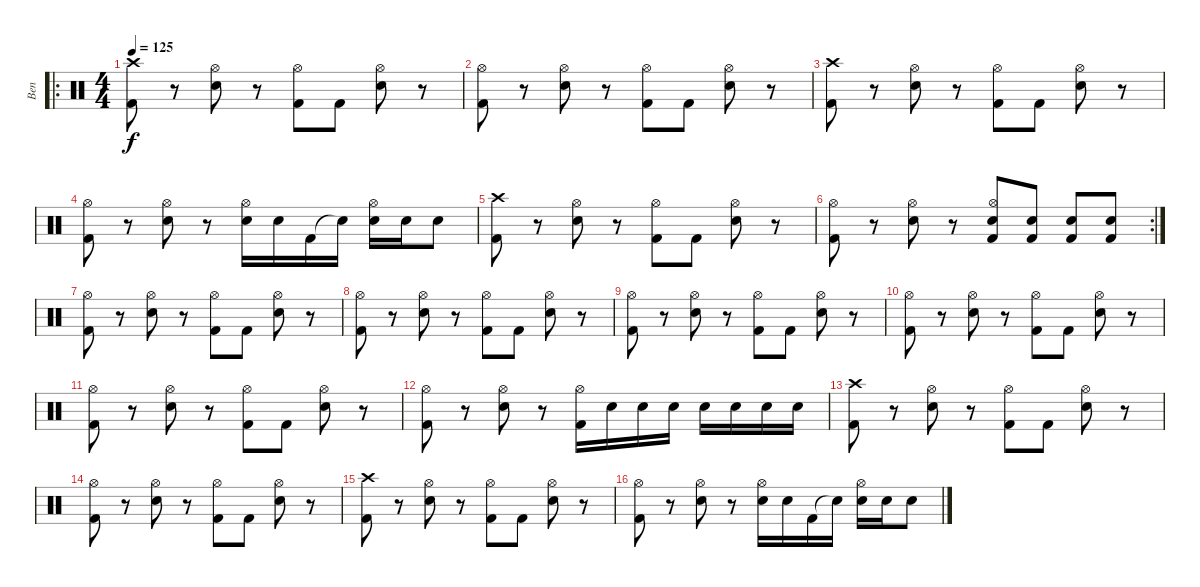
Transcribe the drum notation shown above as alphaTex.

\track ("Ben" "Ben") {instrument percussion}
\staff {score}
\articulation defaults
\ro
\ts (4 4)
\tempo 125
\clef neutral
\ks c
("Crash high (hit)" "Kick (hit) 2").8{dy f} r.8 ("Hi-Hat (open)" "Snare (hit) 2").8 r.8 ("Hi-Hat (open)" "Kick (hit) 2").8 "Kick (hit) 2".8 ("Hi-Hat (open)" "Snare (hit) 2").8 r.8 |
("Hi-Hat (open)" "Kick (hit) 2").8 r.8 ("Hi-Hat (open)" "Snare (hit) 2").8 r.8 ("Hi-Hat (open)" "Kick (hit) 2").8 "Kick (hit) 2".8 ("Hi-Hat (open)" "Snare (hit) 2").8 r.8 |
("Crash high (hit)" "Kick (hit) 2").8 r.8 ("Hi-Hat (open)" "Snare (hit) 2").8 r.8 ("Hi-Hat (open)" "Kick (hit) 2").8 "Kick (hit) 2".8 ("Hi-Hat (open)" "Snare (hit) 2").8 r.8 |
("Hi-Hat (open)" "Kick (hit) 2").8 r.8 ("Hi-Hat (open)" "Snare (hit) 2").8 r.8 ("Hi-Hat (open)" "Snare (hit) 2").16 "Snare (hit) 2".16 "Kick (hit) 2".16 "Snare (hit)"{t}.16 ("Hi-Hat (open)" "Snare (hit) 2").16 "Snare (hit) 2".16 "Snare (hit) 2".8 |
("Crash high (hit)" "Kick (hit) 2").8 r.8 ("Hi-Hat (open)" "Snare (hit) 2").8 r.8 ("Hi-Hat (open)" "Kick (hit) 2").8 "Kick (hit) 2".8 ("Hi-Hat (open)" "Snare (hit) 2").8 r.8 |
\rc 2
("Hi-Hat (open)" "Kick (hit) 2").8 r.8 ("Hi-Hat (open)" "Snare (hit) 2").8 r.8 ("Hi-Hat (open)" "Snare (hit) 2" "Kick (hit) 2").8 ("Snare (hit) 2" "Kick (hit) 2").8 ("Snare (hit) 2" "Kick (hit) 2").8 ("Snare (hit) 2" "Kick (hit) 2").8 |
("Hi-Hat (open)" "Kick (hit) 2").8 r.8 ("Hi-Hat (open)" "Snare (hit) 2").8 r.8 ("Hi-Hat (open)" "Kick (hit) 2").8 "Kick (hit) 2".8 ("Hi-Hat (open)" "Snare (hit) 2").8 r.8 |
("Hi-Hat (open)" "Kick (hit) 2").8 r.8 ("Hi-Hat (open)" "Snare (hit) 2").8 r.8 ("Hi-Hat (open)" "Kick (hit) 2").8 "Kick (hit) 2".8 ("Hi-Hat (open)" "Snare (hit) 2").8 r.8 |
("Hi-Hat (open)" "Kick (hit) 2").8 r.8 ("Hi-Hat (open)" "Snare (hit) 2").8 r.8 ("Hi-Hat (open)" "Kick (hit) 2").8 "Kick (hit) 2".8 ("Hi-Hat (open)" "Snare (hit) 2").8 r.8 |
("Hi-Hat (open)" "Kick (hit) 2").8 r.8 ("Hi-Hat (open)" "Snare (hit) 2").8 r.8 ("Hi-Hat (open)" "Kick (hit) 2").8 "Kick (hit) 2".8 ("Hi-Hat (open)" "Snare (hit) 2").8 r.8 |
("Hi-Hat (open)" "Kick (hit) 2").8 r.8 ("Hi-Hat (open)" "Snare (hit) 2").8 r.8 ("Hi-Hat (open)" "Kick (hit) 2").8 "Kick (hit) 2".8 ("Hi-Hat (open)" "Snare (hit) 2").8 r.8 |
("Hi-Hat (open)" "Kick (hit) 2").8 r.8 ("Hi-Hat (open)" "Snare (hit) 2").8 r.8 ("Hi-Hat (open)" "Kick (hit) 2").16 "Snare (hit) 2".16 "Snare (hit) 2".16 "Snare (hit) 2".16 "Snare (hit) 2".16 "Snare (hit) 2".16 "Snare (hit) 2".16 "Snare (hit) 2".16 |
("Crash high (hit)" "Kick (hit) 2").8 r.8 ("Hi-Hat (open)" "Snare (hit) 2").8 r.8 ("Hi-Hat (open)" "Kick (hit) 2").8 "Kick (hit) 2".8 ("Hi-Hat (open)" "Snare (hit) 2").8 r.8 |
("Hi-Hat (open)" "Kick (hit) 2").8 r.8 ("Hi-Hat (open)" "Snare (hit) 2").8 r.8 ("Hi-Hat (open)" "Kick (hit) 2").8 "Kick (hit) 2".8 ("Hi-Hat (open)" "Snare (hit) 2").8 r.8 |
("Crash high (hit)" "Kick (hit) 2").8 r.8 ("Hi-Hat (open)" "Snare (hit) 2").8 r.8 ("Hi-Hat (open)" "Kick (hit) 2").8 "Kick (hit) 2".8 ("Hi-Hat (open)" "Snare (hit) 2").8 r.8 |
("Hi-Hat (open)" "Kick (hit) 2").8 r.8 ("Hi-Hat (open)" "Snare (hit) 2").8 r.8 ("Hi-Hat (open)" "Snare (hit) 2").16 "Snare (hit) 2".16 "Kick (hit) 2".16 "Snare (hit)"{t}.16 ("Hi-Hat (open)" "Snare (hit) 2").16 "Snare (hit) 2".16 "Snare (hit) 2".8
